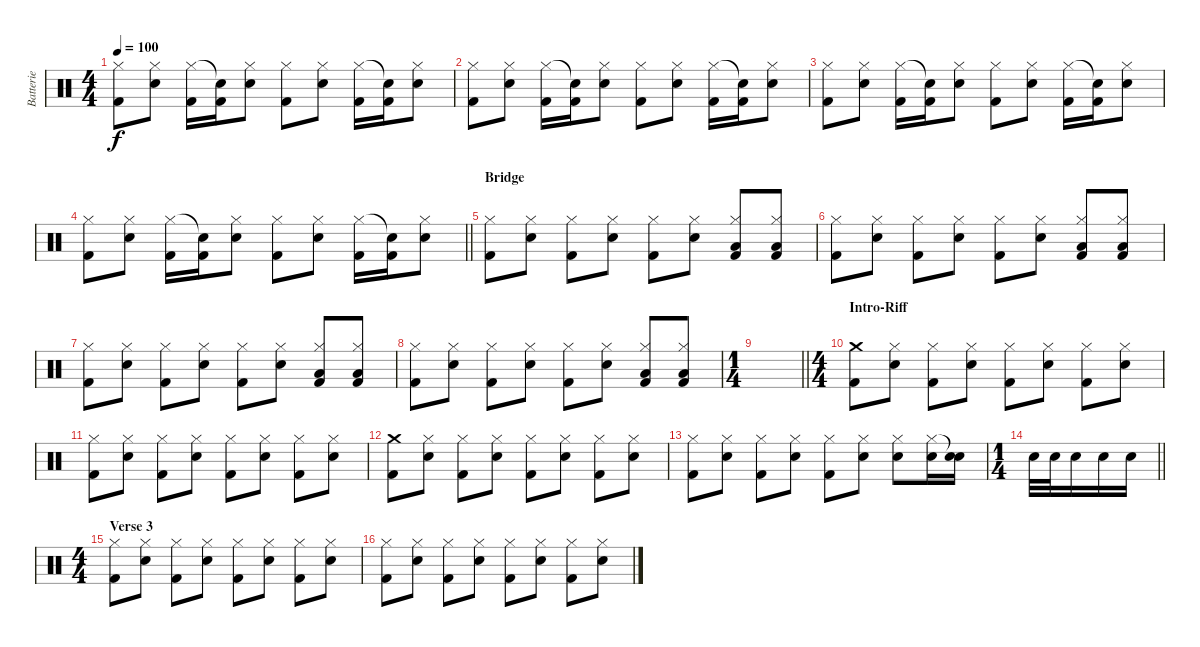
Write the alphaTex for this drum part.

\track ("Batterie" "Batterie") {instrument percussion}
\staff {score}
\articulation defaults
\ts (4 4)
\tempo 100
\clef neutral
\ks c
("Kick (hit) 2" "Hi-Hat (closed)").8{dy f} ("Electric Snare (hit)" "Hi-Hat (closed)").8 ("Kick (hit) 2" "Hi-Hat (closed)").16 ("Kick (hit) 2" "Snare (hit)"{t}).16 ("Electric Snare (hit)" "Hi-Hat (closed)").8 ("Kick (hit) 2" "Hi-Hat (closed)").8 ("Electric Snare (hit)" "Hi-Hat (closed)").8 ("Kick (hit) 2" "Hi-Hat (closed)").16 ("Kick (hit) 2" "Snare (hit)"{t}).16 ("Electric Snare (hit)" "Hi-Hat (closed)").8 |
("Kick (hit) 2" "Hi-Hat (closed)").8 ("Electric Snare (hit)" "Hi-Hat (closed)").8 ("Kick (hit) 2" "Hi-Hat (closed)").16 ("Kick (hit) 2" "Snare (hit)"{t}).16 ("Electric Snare (hit)" "Hi-Hat (closed)").8 ("Kick (hit) 2" "Hi-Hat (closed)").8 ("Electric Snare (hit)" "Hi-Hat (closed)").8 ("Kick (hit) 2" "Hi-Hat (closed)").16 ("Kick (hit) 2" "Snare (hit)"{t}).16 ("Electric Snare (hit)" "Hi-Hat (closed)").8 |
("Kick (hit) 2" "Hi-Hat (closed)").8 ("Electric Snare (hit)" "Hi-Hat (closed)").8 ("Kick (hit) 2" "Hi-Hat (closed)").16 ("Kick (hit) 2" "Snare (hit)"{t}).16 ("Electric Snare (hit)" "Hi-Hat (closed)").8 ("Kick (hit) 2" "Hi-Hat (closed)").8 ("Electric Snare (hit)" "Hi-Hat (closed)").8 ("Kick (hit) 2" "Hi-Hat (closed)").16 ("Kick (hit) 2" "Snare (hit)"{t}).16 ("Electric Snare (hit)" "Hi-Hat (closed)").8 |
\barLineRight lightlight
("Kick (hit) 2" "Hi-Hat (closed)").8 ("Electric Snare (hit)" "Hi-Hat (closed)").8 ("Kick (hit) 2" "Hi-Hat (closed)").16 ("Kick (hit) 2" "Snare (hit)"{t}).16 ("Electric Snare (hit)" "Hi-Hat (closed)").8 ("Kick (hit) 2" "Hi-Hat (closed)").8 ("Electric Snare (hit)" "Hi-Hat (closed)").8 ("Kick (hit) 2" "Hi-Hat (closed)").16 ("Kick (hit) 2" "Snare (hit)"{t}).16 ("Electric Snare (hit)" "Hi-Hat (closed)").8 |
\section ("" "Bridge")
("Kick (hit) 2" "Hi-Hat (closed)").8 ("Electric Snare (hit)" "Hi-Hat (closed)").8 ("Kick (hit) 2" "Hi-Hat (closed)").8 ("Electric Snare (hit)" "Hi-Hat (closed)").8 ("Kick (hit) 2" "Hi-Hat (closed)").8 ("Electric Snare (hit)" "Hi-Hat (closed)").8 ("Low Tom (hit)" "Kick (hit) 2" "Hi-Hat (closed)").8 ("Low Tom (hit)" "Kick (hit) 2" "Hi-Hat (closed)").8 |
("Kick (hit) 2" "Hi-Hat (closed)").8 ("Electric Snare (hit)" "Hi-Hat (closed)").8 ("Kick (hit) 2" "Hi-Hat (closed)").8 ("Electric Snare (hit)" "Hi-Hat (closed)").8 ("Kick (hit) 2" "Hi-Hat (closed)").8 ("Electric Snare (hit)" "Hi-Hat (closed)").8 ("Low Tom (hit)" "Kick (hit) 2" "Hi-Hat (closed)").8 ("Low Tom (hit)" "Kick (hit) 2" "Hi-Hat (closed)").8 |
("Kick (hit) 2" "Hi-Hat (closed)").8 ("Electric Snare (hit)" "Hi-Hat (closed)").8 ("Kick (hit) 2" "Hi-Hat (closed)").8 ("Electric Snare (hit)" "Hi-Hat (closed)").8 ("Kick (hit) 2" "Hi-Hat (closed)").8 ("Electric Snare (hit)" "Hi-Hat (closed)").8 ("Low Tom (hit)" "Kick (hit) 2" "Hi-Hat (closed)").8 ("Low Tom (hit)" "Kick (hit) 2" "Hi-Hat (closed)").8 |
("Kick (hit) 2" "Hi-Hat (closed)").8 ("Electric Snare (hit)" "Hi-Hat (closed)").8 ("Kick (hit) 2" "Hi-Hat (closed)").8 ("Electric Snare (hit)" "Hi-Hat (closed)").8 ("Kick (hit) 2" "Hi-Hat (closed)").8 ("Electric Snare (hit)" "Hi-Hat (closed)").8 ("Low Tom (hit)" "Kick (hit) 2" "Hi-Hat (closed)").8 ("Low Tom (hit)" "Kick (hit) 2" "Hi-Hat (closed)").8 |
\ts (1 4)
\barLineRight lightlight
|
\ts (4 4)
\section ("" "Intro-Riff")
("Kick (hit) 2" "Crash medium (hit)").8 ("Electric Snare (hit)" "Hi-Hat (closed)").8 ("Kick (hit) 2" "Hi-Hat (closed)").8 ("Electric Snare (hit)" "Hi-Hat (closed)").8 ("Kick (hit) 2" "Hi-Hat (closed)").8 ("Electric Snare (hit)" "Hi-Hat (closed)").8 ("Kick (hit) 2" "Hi-Hat (closed)").8 ("Electric Snare (hit)" "Hi-Hat (closed)").8 |
("Kick (hit) 2" "Hi-Hat (closed)").8 ("Electric Snare (hit)" "Hi-Hat (closed)").8 ("Kick (hit) 2" "Hi-Hat (closed)").8 ("Electric Snare (hit)" "Hi-Hat (closed)").8 ("Kick (hit) 2" "Hi-Hat (closed)").8 ("Electric Snare (hit)" "Hi-Hat (closed)").8 ("Kick (hit) 2" "Hi-Hat (closed)").8 ("Electric Snare (hit)" "Hi-Hat (closed)").8 |
("Kick (hit) 2" "Crash medium (hit)").8 ("Electric Snare (hit)" "Hi-Hat (closed)").8 ("Kick (hit) 2" "Hi-Hat (closed)").8 ("Electric Snare (hit)" "Hi-Hat (closed)").8 ("Kick (hit) 2" "Hi-Hat (closed)").8 ("Electric Snare (hit)" "Hi-Hat (closed)").8 ("Kick (hit) 2" "Hi-Hat (closed)").8 ("Electric Snare (hit)" "Hi-Hat (closed)").8 |
("Kick (hit) 2" "Hi-Hat (closed)").8 ("Electric Snare (hit)" "Hi-Hat (closed)").8 ("Kick (hit) 2" "Hi-Hat (closed)").8 ("Electric Snare (hit)" "Hi-Hat (closed)").8 ("Kick (hit) 2" "Hi-Hat (closed)").8 ("Electric Snare (hit)" "Hi-Hat (closed)").8 ("Electric Snare (hit)" "Hi-Hat (closed)").8 ("Electric Snare (hit)" "Hi-Hat (closed)").16 ("Electric Snare (hit)" "Snare (hit)"{t}).16 |
\ts (1 4)
\barLineRight lightlight "Electric Snare (hit)".32 "Electric Snare (hit)".32 "Electric Snare (hit)".16 "Electric Snare (hit)".16 "Electric Snare (hit)".16
|
\ts (4 4)
\section ("" "Verse 3")
("Kick (hit) 2" "Hi-Hat (closed)").8 ("Electric Snare (hit)" "Hi-Hat (closed)").8 ("Kick (hit) 2" "Hi-Hat (closed)").8 ("Electric Snare (hit)" "Hi-Hat (closed)").8 ("Kick (hit) 2" "Hi-Hat (closed)").8 ("Electric Snare (hit)" "Hi-Hat (closed)").8 ("Kick (hit) 2" "Hi-Hat (closed)").8 ("Electric Snare (hit)" "Hi-Hat (closed)").8 |
("Kick (hit) 2" "Hi-Hat (closed)").8 ("Electric Snare (hit)" "Hi-Hat (closed)").8 ("Kick (hit) 2" "Hi-Hat (closed)").8 ("Electric Snare (hit)" "Hi-Hat (closed)").8 ("Kick (hit) 2" "Hi-Hat (closed)").8 ("Electric Snare (hit)" "Hi-Hat (closed)").8 ("Kick (hit) 2" "Hi-Hat (closed)").8 ("Electric Snare (hit)" "Hi-Hat (closed)").8
